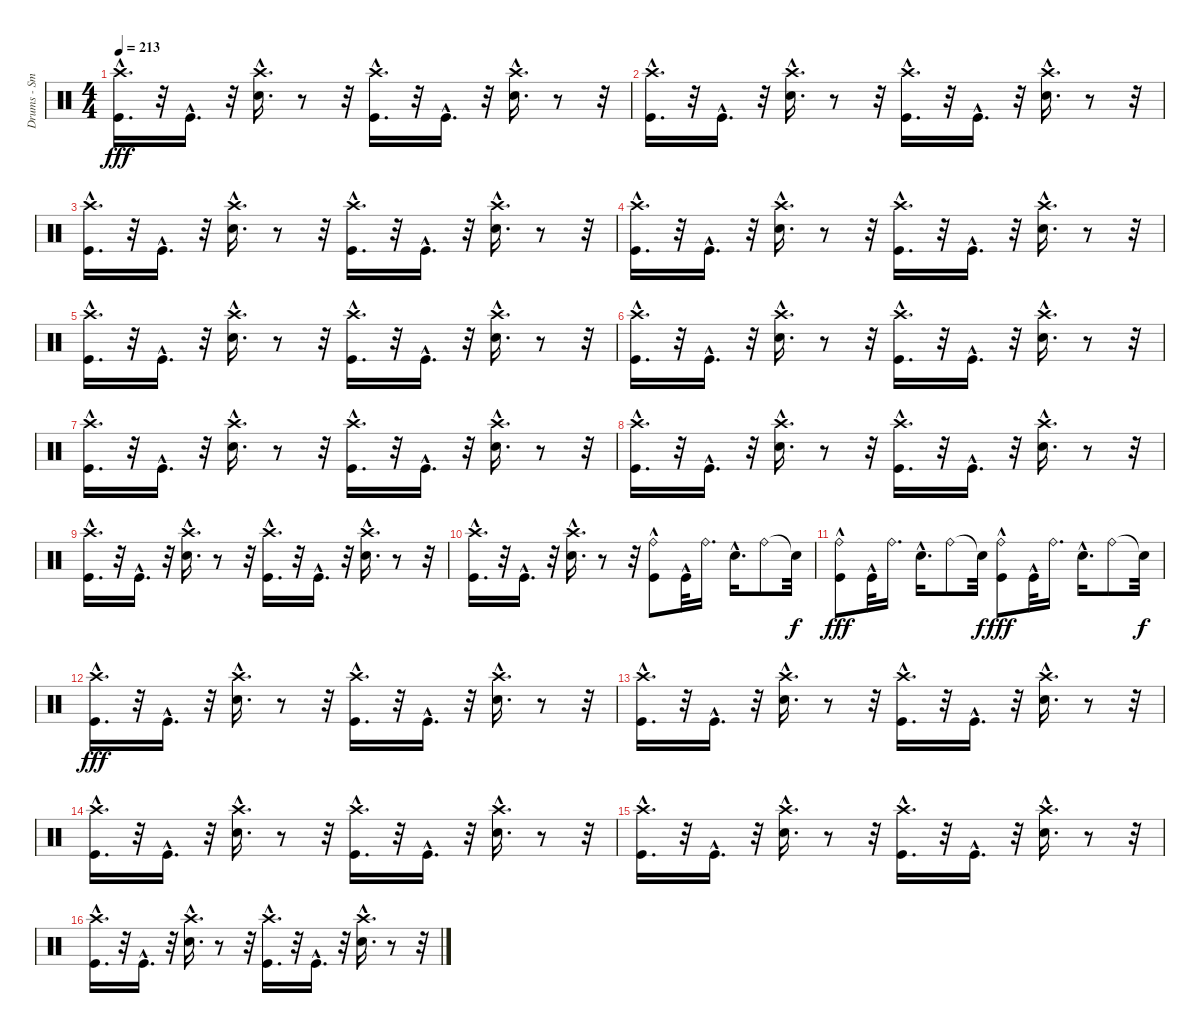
\track ("Drums - Smelly" "Drums - Sm") {instrument percussion}
\staff {score}
\articulation defaults
\ts (4 4)
\tempo 213
\clef neutral
\ks c
("Crash high (hit)"{hac} "Kick (hit)"{hac}).16{d dy fff} r.32 "Kick (hit)"{hac}.16{d} r.32 ("Crash high (hit)"{hac} "Electric Snare (hit)"{hac}).16{d} r.8 r.32 ("Crash high (hit)"{hac} "Kick (hit)"{hac}).16{d} r.32 "Kick (hit)"{hac}.16{d} r.32 ("Electric Snare (hit)"{hac} "Crash high (hit)"{hac}).16{d} r.8 r.32 |
("Crash high (hit)"{hac} "Kick (hit)"{hac}).16{d} r.32 "Kick (hit)"{hac}.16{d} r.32 ("Crash high (hit)"{hac} "Electric Snare (hit)"{hac}).16{d} r.8 r.32 ("Kick (hit)"{hac} "Crash high (hit)"{hac}).16{d} r.32 "Kick (hit)"{hac}.16{d} r.32 ("Electric Snare (hit)"{hac} "Crash high (hit)"{hac}).16{d} r.8 r.32 |
("Crash high (hit)"{hac} "Kick (hit)"{hac}).16{d} r.32 "Kick (hit)"{hac}.16{d} r.32 ("Crash high (hit)"{hac} "Electric Snare (hit)"{hac}).16{d} r.8 r.32 ("Crash high (hit)"{hac} "Kick (hit)"{hac}).16{d} r.32 "Kick (hit)"{hac}.16{d} r.32 ("Electric Snare (hit)"{hac} "Crash high (hit)"{hac}).16{d} r.8 r.32 |
("Crash high (hit)"{hac} "Kick (hit)"{hac}).16{d} r.32 "Kick (hit)"{hac}.16{d} r.32 ("Crash high (hit)"{hac} "Electric Snare (hit)"{hac}).16{d} r.8 r.32 ("Kick (hit)"{hac} "Crash high (hit)"{hac}).16{d} r.32 "Kick (hit)"{hac}.16{d} r.32 ("Electric Snare (hit)"{hac} "Crash high (hit)"{hac}).16{d} r.8 r.32 |
("Crash high (hit)"{hac} "Kick (hit)"{hac}).16{d} r.32 "Kick (hit)"{hac}.16{d} r.32 ("Crash high (hit)"{hac} "Electric Snare (hit)"{hac}).16{d} r.8 r.32 ("Crash high (hit)"{hac} "Kick (hit)"{hac}).16{d} r.32 "Kick (hit)"{hac}.16{d} r.32 ("Electric Snare (hit)"{hac} "Crash high (hit)"{hac}).16{d} r.8 r.32 |
("Crash high (hit)"{hac} "Kick (hit)"{hac}).16{d} r.32 "Kick (hit)"{hac}.16{d} r.32 ("Crash high (hit)"{hac} "Electric Snare (hit)"{hac}).16{d} r.8 r.32 ("Kick (hit)"{hac} "Crash high (hit)"{hac}).16{d} r.32 "Kick (hit)"{hac}.16{d} r.32 ("Electric Snare (hit)"{hac} "Crash high (hit)"{hac}).16{d} r.8 r.32 |
("Crash high (hit)"{hac} "Kick (hit)"{hac}).16{d} r.32 "Kick (hit)"{hac}.16{d} r.32 ("Crash high (hit)"{hac} "Electric Snare (hit)"{hac}).16{d} r.8 r.32 ("Crash high (hit)"{hac} "Kick (hit)"{hac}).16{d} r.32 "Kick (hit)"{hac}.16{d} r.32 ("Electric Snare (hit)"{hac} "Crash high (hit)"{hac}).16{d} r.8 r.32 |
("Crash high (hit)"{hac} "Kick (hit)"{hac}).16{d} r.32 "Kick (hit)"{hac}.16{d} r.32 ("Crash high (hit)"{hac} "Electric Snare (hit)"{hac}).16{d} r.8 r.32 ("Kick (hit)"{hac} "Crash high (hit)"{hac}).16{d} r.32 "Kick (hit)"{hac}.16{d} r.32 ("Electric Snare (hit)"{hac} "Crash high (hit)"{hac}).16{d} r.8 r.32 |
("Crash high (hit)"{hac} "Kick (hit)"{hac}).16{d} r.32 "Kick (hit)"{hac}.16{d} r.32 ("Crash high (hit)"{hac} "Electric Snare (hit)"{hac}).16{d} r.8 r.32 ("Crash high (hit)"{hac} "Kick (hit)"{hac}).16{d} r.32 "Kick (hit)"{hac}.16{d} r.32 ("Electric Snare (hit)"{hac} "Crash high (hit)"{hac}).16{d} r.8 r.32 |
("Crash high (hit)"{hac} "Kick (hit)"{hac}).16{d} r.32 "Kick (hit)"{hac}.16{d} r.32 ("Crash high (hit)"{hac} "Electric Snare (hit)"{hac}).16{d} r.8 r.32 ("Kick (hit)"{hac} "Ride (bell)").8 "Kick (hit)"{hac}.32 "Ride (bell)".16{d} "Electric Snare (hit)"{hac}.16{d} "Ride (bell)".8 "Snare (hit)"{t}.32{dy f} |
("Ride (bell)" "Kick (hit)"{hac}).8{dy fff} "Kick (hit)"{hac}.32 "Ride (bell)".16{d} "Electric Snare (hit)"{hac}.16{d} "Ride (bell)".8 "Snare (hit)"{t}.32{dy f} ("Ride (bell)" "Kick (hit)"{hac}).8{dy fff} "Kick (hit)"{hac}.32 "Ride (bell)".16{d} "Electric Snare (hit)"{hac}.16{d} "Ride (bell)".8 "Snare (hit)"{t}.32{dy f} |
("Crash high (hit)"{hac} "Kick (hit)"{hac}).16{d dy fff} r.32 "Kick (hit)"{hac}.16{d} r.32 ("Crash high (hit)"{hac} "Electric Snare (hit)"{hac}).16{d} r.8 r.32 ("Kick (hit)"{hac} "Crash high (hit)"{hac}).16{d} r.32 "Kick (hit)"{hac}.16{d} r.32 ("Electric Snare (hit)"{hac} "Crash high (hit)"{hac}).16{d} r.8 r.32 |
("Crash high (hit)"{hac} "Kick (hit)"{hac}).16{d} r.32 "Kick (hit)"{hac}.16{d} r.32 ("Crash high (hit)"{hac} "Electric Snare (hit)"{hac}).16{d} r.8 r.32 ("Crash high (hit)"{hac} "Kick (hit)"{hac}).16{d} r.32 "Kick (hit)"{hac}.16{d} r.32 ("Electric Snare (hit)"{hac} "Crash high (hit)"{hac}).16{d} r.8 r.32 |
("Crash high (hit)"{hac} "Kick (hit)"{hac}).16{d} r.32 "Kick (hit)"{hac}.16{d} r.32 ("Crash high (hit)"{hac} "Electric Snare (hit)"{hac}).16{d} r.8 r.32 ("Kick (hit)"{hac} "Crash high (hit)"{hac}).16{d} r.32 "Kick (hit)"{hac}.16{d} r.32 ("Electric Snare (hit)"{hac} "Crash high (hit)"{hac}).16{d} r.8 r.32 |
("Crash high (hit)"{hac} "Kick (hit)"{hac}).16{d} r.32 "Kick (hit)"{hac}.16{d} r.32 ("Crash high (hit)"{hac} "Electric Snare (hit)"{hac}).16{d} r.8 r.32 ("Crash high (hit)"{hac} "Kick (hit)"{hac}).16{d} r.32 "Kick (hit)"{hac}.16{d} r.32 ("Electric Snare (hit)"{hac} "Crash high (hit)"{hac}).16{d} r.8 r.32 |
("Crash high (hit)"{hac} "Kick (hit)"{hac}).16{d} r.32 "Kick (hit)"{hac}.16{d} r.32 ("Crash high (hit)"{hac} "Electric Snare (hit)"{hac}).16{d} r.8 r.32 ("Kick (hit)"{hac} "Crash high (hit)"{hac}).16{d} r.32 "Kick (hit)"{hac}.16{d} r.32 ("Electric Snare (hit)"{hac} "Crash high (hit)"{hac}).16{d} r.8 r.32
